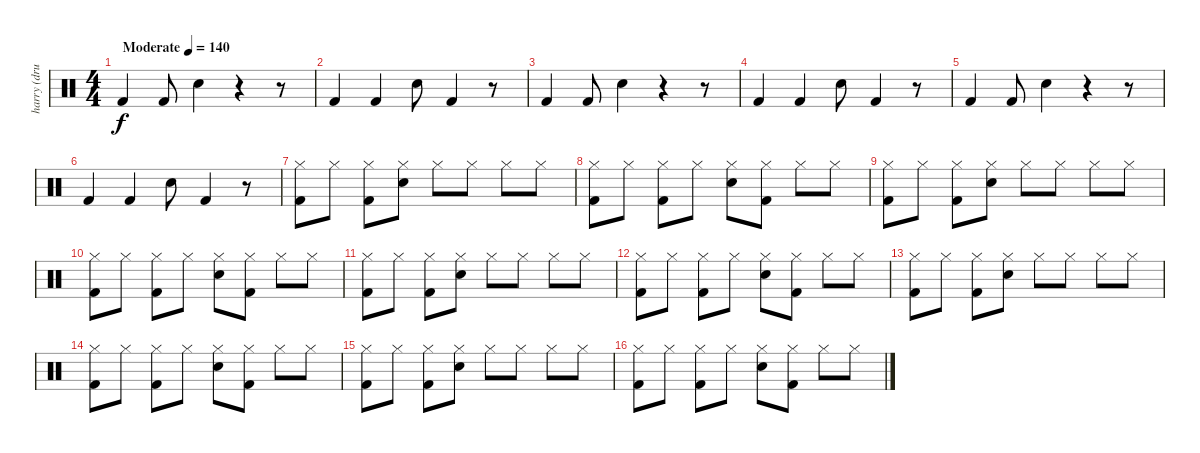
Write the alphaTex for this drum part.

\track ("harry (drum)" "harry (dru") {instrument percussion}
\staff {score}
\articulation defaults
\ts (4 4)
\tempo (140 "Moderate")
\clef neutral
\ks c "Kick (hit) 2".4{dy f} "Kick (hit) 2".8 "Snare (hit) 2".4
r.4 r.8 |
"Kick (hit) 2".4 "Kick (hit) 2".4 "Snare (hit) 2".8 "Kick (hit) 2".4 r.8 |
"Kick (hit) 2".4 "Kick (hit) 2".8 "Snare (hit) 2".4 r.4 r.8 |
"Kick (hit) 2".4 "Kick (hit) 2".4 "Snare (hit) 2".8 "Kick (hit) 2".4 r.8 |
"Kick (hit) 2".4 "Kick (hit) 2".8 "Snare (hit) 2".4 r.4 r.8 |
"Kick (hit) 2".4 "Kick (hit) 2".4 "Snare (hit) 2".8 "Kick (hit) 2".4 r.8 |
("Hi-Hat (closed)" "Kick (hit) 2").8 "Hi-Hat (closed)".8 ("Hi-Hat (closed)" "Kick (hit) 2").8 ("Hi-Hat (closed)" "Snare (hit) 2").8 "Hi-Hat (closed)".8 "Hi-Hat (closed)".8 "Hi-Hat (closed)".8 "Hi-Hat (closed)".8 |
("Hi-Hat (closed)" "Kick (hit) 2").8 "Hi-Hat (closed)".8 ("Hi-Hat (closed)" "Kick (hit) 2").8 "Hi-Hat (closed)".8 ("Hi-Hat (closed)" "Snare (hit) 2").8 ("Hi-Hat (closed)" "Kick (hit) 2").8 "Hi-Hat (closed)".8 "Hi-Hat (closed)".8 |
("Hi-Hat (closed)" "Kick (hit) 2").8 "Hi-Hat (closed)".8 ("Hi-Hat (closed)" "Kick (hit) 2").8 ("Hi-Hat (closed)" "Snare (hit) 2").8 "Hi-Hat (closed)".8 "Hi-Hat (closed)".8 "Hi-Hat (closed)".8 "Hi-Hat (closed)".8 |
("Hi-Hat (closed)" "Kick (hit) 2").8 "Hi-Hat (closed)".8 ("Hi-Hat (closed)" "Kick (hit) 2").8 "Hi-Hat (closed)".8 ("Hi-Hat (closed)" "Snare (hit) 2").8 ("Hi-Hat (closed)" "Kick (hit) 2").8 "Hi-Hat (closed)".8 "Hi-Hat (closed)".8 |
("Hi-Hat (closed)" "Kick (hit) 2").8 "Hi-Hat (closed)".8 ("Hi-Hat (closed)" "Kick (hit) 2").8 ("Hi-Hat (closed)" "Snare (hit) 2").8 "Hi-Hat (closed)".8 "Hi-Hat (closed)".8 "Hi-Hat (closed)".8 "Hi-Hat (closed)".8 |
("Hi-Hat (closed)" "Kick (hit) 2").8 "Hi-Hat (closed)".8 ("Hi-Hat (closed)" "Kick (hit) 2").8 "Hi-Hat (closed)".8 ("Hi-Hat (closed)" "Snare (hit) 2").8 ("Hi-Hat (closed)" "Kick (hit) 2").8 "Hi-Hat (closed)".8 "Hi-Hat (closed)".8 |
("Hi-Hat (closed)" "Kick (hit) 2").8 "Hi-Hat (closed)".8 ("Hi-Hat (closed)" "Kick (hit) 2").8 ("Hi-Hat (closed)" "Snare (hit) 2").8 "Hi-Hat (closed)".8 "Hi-Hat (closed)".8 "Hi-Hat (closed)".8 "Hi-Hat (closed)".8 |
("Hi-Hat (closed)" "Kick (hit) 2").8 "Hi-Hat (closed)".8 ("Hi-Hat (closed)" "Kick (hit) 2").8 "Hi-Hat (closed)".8 ("Hi-Hat (closed)" "Snare (hit) 2").8 ("Hi-Hat (closed)" "Kick (hit) 2").8 "Hi-Hat (closed)".8 "Hi-Hat (closed)".8 |
("Hi-Hat (closed)" "Kick (hit) 2").8 "Hi-Hat (closed)".8 ("Hi-Hat (closed)" "Kick (hit) 2").8 ("Hi-Hat (closed)" "Snare (hit) 2").8 "Hi-Hat (closed)".8 "Hi-Hat (closed)".8 "Hi-Hat (closed)".8 "Hi-Hat (closed)".8 |
("Hi-Hat (closed)" "Kick (hit) 2").8 "Hi-Hat (closed)".8 ("Hi-Hat (closed)" "Kick (hit) 2").8 "Hi-Hat (closed)".8 ("Hi-Hat (closed)" "Snare (hit) 2").8 ("Hi-Hat (closed)" "Kick (hit) 2").8 "Hi-Hat (closed)".8 "Hi-Hat (closed)".8
